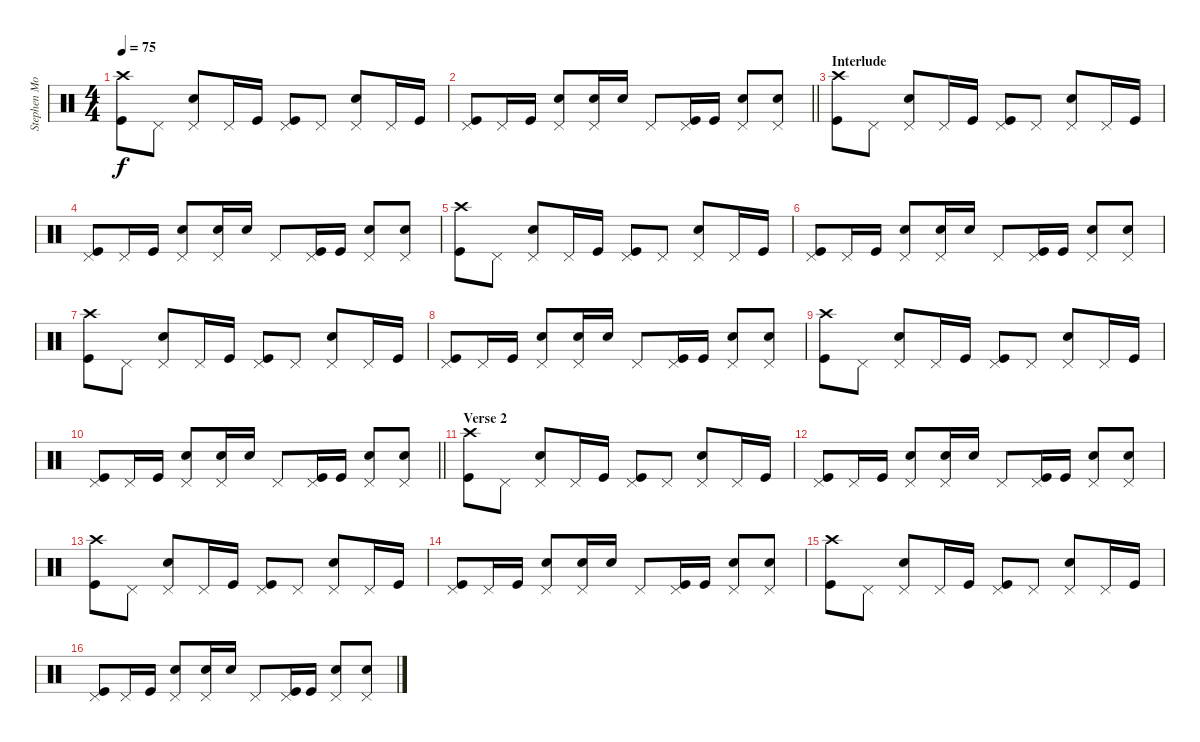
\track ("Stephen Morris (Drums)" "Stephen Mo") {instrument percussion}
\staff {score}
\articulation defaults
\ts (4 4)
\tempo 75
\clef neutral
\ks c
("Crash high (hit)" "Kick (hit)").8{dy f} "Pedal Hi-Hat (hit)".8 ("Pedal Hi-Hat (hit)" "Electric Snare (hit)").8 "Pedal Hi-Hat (hit)".16 "Kick (hit)".16 ("Pedal Hi-Hat (hit)" "Kick (hit)").8 "Pedal Hi-Hat (hit)".8 ("Pedal Hi-Hat (hit)" "Electric Snare (hit)").8 "Pedal Hi-Hat (hit)".16 "Kick (hit)".16 |
\barLineRight lightlight
("Pedal Hi-Hat (hit)" "Kick (hit)").8 "Pedal Hi-Hat (hit)".16 "Kick (hit)".16 ("Pedal Hi-Hat (hit)" "Electric Snare (hit)").8 ("Pedal Hi-Hat (hit)" "Electric Snare (hit)").16 "Electric Snare (hit)".16 "Pedal Hi-Hat (hit)".8 ("Pedal Hi-Hat (hit)" "Kick (hit)").16 "Kick (hit)".16 ("Pedal Hi-Hat (hit)" "Electric Snare (hit)").8 ("Pedal Hi-Hat (hit)" "Electric Snare (hit)").8 |
\section ("" "Interlude")
("Crash high (hit)" "Kick (hit)").8 "Pedal Hi-Hat (hit)".8 ("Pedal Hi-Hat (hit)" "Electric Snare (hit)").8 "Pedal Hi-Hat (hit)".16 "Kick (hit)".16 ("Pedal Hi-Hat (hit)" "Kick (hit)").8 "Pedal Hi-Hat (hit)".8 ("Pedal Hi-Hat (hit)" "Electric Snare (hit)").8 "Pedal Hi-Hat (hit)".16 "Kick (hit)".16 |
("Pedal Hi-Hat (hit)" "Kick (hit)").8 "Pedal Hi-Hat (hit)".16 "Kick (hit)".16 ("Pedal Hi-Hat (hit)" "Electric Snare (hit)").8 ("Pedal Hi-Hat (hit)" "Electric Snare (hit)").16 "Electric Snare (hit)".16 "Pedal Hi-Hat (hit)".8 ("Pedal Hi-Hat (hit)" "Kick (hit)").16 "Kick (hit)".16 ("Pedal Hi-Hat (hit)" "Electric Snare (hit)").8 ("Pedal Hi-Hat (hit)" "Electric Snare (hit)").8 |
("Crash high (hit)" "Kick (hit)").8 "Pedal Hi-Hat (hit)".8 ("Pedal Hi-Hat (hit)" "Electric Snare (hit)").8 "Pedal Hi-Hat (hit)".16 "Kick (hit)".16 ("Pedal Hi-Hat (hit)" "Kick (hit)").8 "Pedal Hi-Hat (hit)".8 ("Pedal Hi-Hat (hit)" "Electric Snare (hit)").8 "Pedal Hi-Hat (hit)".16 "Kick (hit)".16 |
("Pedal Hi-Hat (hit)" "Kick (hit)").8 "Pedal Hi-Hat (hit)".16 "Kick (hit)".16 ("Pedal Hi-Hat (hit)" "Electric Snare (hit)").8 ("Pedal Hi-Hat (hit)" "Electric Snare (hit)").16 "Electric Snare (hit)".16 "Pedal Hi-Hat (hit)".8 ("Pedal Hi-Hat (hit)" "Kick (hit)").16 "Kick (hit)".16 ("Pedal Hi-Hat (hit)" "Electric Snare (hit)").8 ("Pedal Hi-Hat (hit)" "Electric Snare (hit)").8 |
("Crash high (hit)" "Kick (hit)").8 "Pedal Hi-Hat (hit)".8 ("Pedal Hi-Hat (hit)" "Electric Snare (hit)").8 "Pedal Hi-Hat (hit)".16 "Kick (hit)".16 ("Pedal Hi-Hat (hit)" "Kick (hit)").8 "Pedal Hi-Hat (hit)".8 ("Pedal Hi-Hat (hit)" "Electric Snare (hit)").8 "Pedal Hi-Hat (hit)".16 "Kick (hit)".16 |
("Pedal Hi-Hat (hit)" "Kick (hit)").8 "Pedal Hi-Hat (hit)".16 "Kick (hit)".16 ("Pedal Hi-Hat (hit)" "Electric Snare (hit)").8 ("Pedal Hi-Hat (hit)" "Electric Snare (hit)").16 "Electric Snare (hit)".16 "Pedal Hi-Hat (hit)".8 ("Pedal Hi-Hat (hit)" "Kick (hit)").16 "Kick (hit)".16 ("Pedal Hi-Hat (hit)" "Electric Snare (hit)").8 ("Pedal Hi-Hat (hit)" "Electric Snare (hit)").8 |
("Crash high (hit)" "Kick (hit)").8 "Pedal Hi-Hat (hit)".8 ("Pedal Hi-Hat (hit)" "Electric Snare (hit)").8 "Pedal Hi-Hat (hit)".16 "Kick (hit)".16 ("Pedal Hi-Hat (hit)" "Kick (hit)").8 "Pedal Hi-Hat (hit)".8 ("Pedal Hi-Hat (hit)" "Electric Snare (hit)").8 "Pedal Hi-Hat (hit)".16 "Kick (hit)".16 |
\barLineRight lightlight
("Pedal Hi-Hat (hit)" "Kick (hit)").8 "Pedal Hi-Hat (hit)".16 "Kick (hit)".16 ("Pedal Hi-Hat (hit)" "Electric Snare (hit)").8 ("Pedal Hi-Hat (hit)" "Electric Snare (hit)").16 "Electric Snare (hit)".16 "Pedal Hi-Hat (hit)".8 ("Pedal Hi-Hat (hit)" "Kick (hit)").16 "Kick (hit)".16 ("Pedal Hi-Hat (hit)" "Electric Snare (hit)").8 ("Pedal Hi-Hat (hit)" "Electric Snare (hit)").8 |
\section ("" "Verse 2")
("Crash high (hit)" "Kick (hit)").8 "Pedal Hi-Hat (hit)".8 ("Pedal Hi-Hat (hit)" "Electric Snare (hit)").8 "Pedal Hi-Hat (hit)".16 "Kick (hit)".16 ("Pedal Hi-Hat (hit)" "Kick (hit)").8 "Pedal Hi-Hat (hit)".8 ("Pedal Hi-Hat (hit)" "Electric Snare (hit)").8 "Pedal Hi-Hat (hit)".16 "Kick (hit)".16 |
("Pedal Hi-Hat (hit)" "Kick (hit)").8 "Pedal Hi-Hat (hit)".16 "Kick (hit)".16 ("Pedal Hi-Hat (hit)" "Electric Snare (hit)").8 ("Pedal Hi-Hat (hit)" "Electric Snare (hit)").16 "Electric Snare (hit)".16 "Pedal Hi-Hat (hit)".8 ("Pedal Hi-Hat (hit)" "Kick (hit)").16 "Kick (hit)".16 ("Pedal Hi-Hat (hit)" "Electric Snare (hit)").8 ("Pedal Hi-Hat (hit)" "Electric Snare (hit)").8 |
("Crash high (hit)" "Kick (hit)").8 "Pedal Hi-Hat (hit)".8 ("Pedal Hi-Hat (hit)" "Electric Snare (hit)").8 "Pedal Hi-Hat (hit)".16 "Kick (hit)".16 ("Pedal Hi-Hat (hit)" "Kick (hit)").8 "Pedal Hi-Hat (hit)".8 ("Pedal Hi-Hat (hit)" "Electric Snare (hit)").8 "Pedal Hi-Hat (hit)".16 "Kick (hit)".16 |
("Pedal Hi-Hat (hit)" "Kick (hit)").8 "Pedal Hi-Hat (hit)".16 "Kick (hit)".16 ("Pedal Hi-Hat (hit)" "Electric Snare (hit)").8 ("Pedal Hi-Hat (hit)" "Electric Snare (hit)").16 "Electric Snare (hit)".16 "Pedal Hi-Hat (hit)".8 ("Pedal Hi-Hat (hit)" "Kick (hit)").16 "Kick (hit)".16 ("Pedal Hi-Hat (hit)" "Electric Snare (hit)").8 ("Pedal Hi-Hat (hit)" "Electric Snare (hit)").8 |
("Crash high (hit)" "Kick (hit)").8 "Pedal Hi-Hat (hit)".8 ("Pedal Hi-Hat (hit)" "Electric Snare (hit)").8 "Pedal Hi-Hat (hit)".16 "Kick (hit)".16 ("Pedal Hi-Hat (hit)" "Kick (hit)").8 "Pedal Hi-Hat (hit)".8 ("Pedal Hi-Hat (hit)" "Electric Snare (hit)").8 "Pedal Hi-Hat (hit)".16 "Kick (hit)".16 |
("Pedal Hi-Hat (hit)" "Kick (hit)").8 "Pedal Hi-Hat (hit)".16 "Kick (hit)".16 ("Pedal Hi-Hat (hit)" "Electric Snare (hit)").8 ("Pedal Hi-Hat (hit)" "Electric Snare (hit)").16 "Electric Snare (hit)".16 "Pedal Hi-Hat (hit)".8 ("Pedal Hi-Hat (hit)" "Kick (hit)").16 "Kick (hit)".16 ("Pedal Hi-Hat (hit)" "Electric Snare (hit)").8 ("Pedal Hi-Hat (hit)" "Electric Snare (hit)").8
